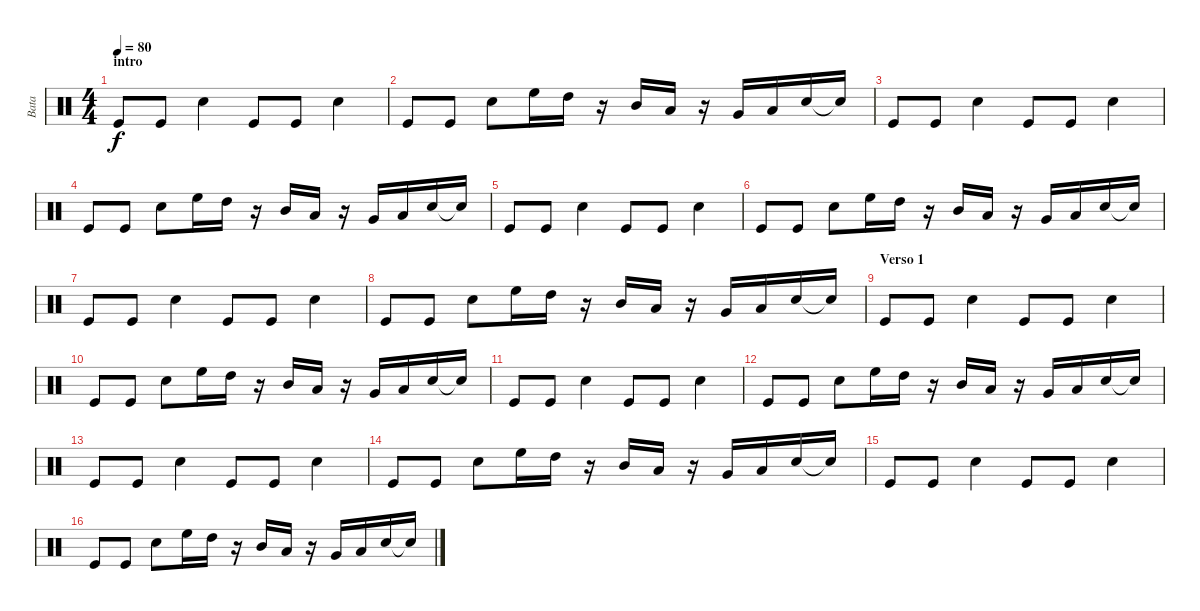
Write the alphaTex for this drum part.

\track ("Bata" "Bata") {instrument percussion}
\staff {score}
\articulation defaults
\ts (4 4)
\section ("" "intro")
\tempo 80
\clef neutral
\ks c "Kick (hit)".8{dy f} "Kick (hit)".8 "Snare (hit) 2".4 "Kick (hit)".8 "Kick (hit)".8 "Snare (hit) 2".4
|
"Kick (hit)".8 "Kick (hit)".8 "Snare (hit) 2".8 "High Floor Tom (hit)".16 "High Tom (hit)".16 r.16 "Mid Tom (hit)".16 "Low Tom (hit)".16 r.16 "Very Low Tom (hit)".16 "Low Floor Tom (hit)".16 "Snare (hit) 2".16 "Snare (hit)"{t}.16 |
"Kick (hit)".8 "Kick (hit)".8 "Snare (hit) 2".4 "Kick (hit)".8 "Kick (hit)".8 "Snare (hit) 2".4 |
"Kick (hit)".8 "Kick (hit)".8 "Snare (hit) 2".8 "High Floor Tom (hit)".16 "High Tom (hit)".16 r.16 "Mid Tom (hit)".16 "Low Tom (hit)".16 r.16 "Very Low Tom (hit)".16 "Low Floor Tom (hit)".16 "Snare (hit) 2".16 "Snare (hit)"{t}.16 |
"Kick (hit)".8 "Kick (hit)".8 "Snare (hit) 2".4 "Kick (hit)".8 "Kick (hit)".8 "Snare (hit) 2".4 |
"Kick (hit)".8 "Kick (hit)".8 "Snare (hit) 2".8 "High Floor Tom (hit)".16 "High Tom (hit)".16 r.16 "Mid Tom (hit)".16 "Low Tom (hit)".16 r.16 "Very Low Tom (hit)".16 "Low Floor Tom (hit)".16 "Snare (hit) 2".16 "Snare (hit)"{t}.16 |
"Kick (hit)".8 "Kick (hit)".8 "Snare (hit) 2".4 "Kick (hit)".8 "Kick (hit)".8 "Snare (hit) 2".4 |
"Kick (hit)".8 "Kick (hit)".8 "Snare (hit) 2".8 "High Floor Tom (hit)".16 "High Tom (hit)".16 r.16 "Mid Tom (hit)".16 "Low Tom (hit)".16 r.16 "Very Low Tom (hit)".16 "Low Floor Tom (hit)".16 "Snare (hit) 2".16 "Snare (hit)"{t}.16 |
\section ("" "Verso 1")
"Kick (hit)".8 "Kick (hit)".8 "Snare (hit) 2".4 "Kick (hit)".8 "Kick (hit)".8 "Snare (hit) 2".4 |
"Kick (hit)".8 "Kick (hit)".8 "Snare (hit) 2".8 "High Floor Tom (hit)".16 "High Tom (hit)".16 r.16 "Mid Tom (hit)".16 "Low Tom (hit)".16 r.16 "Very Low Tom (hit)".16 "Low Floor Tom (hit)".16 "Snare (hit) 2".16 "Snare (hit)"{t}.16 |
"Kick (hit)".8 "Kick (hit)".8 "Snare (hit) 2".4 "Kick (hit)".8 "Kick (hit)".8 "Snare (hit) 2".4 |
"Kick (hit)".8 "Kick (hit)".8 "Snare (hit) 2".8 "High Floor Tom (hit)".16 "High Tom (hit)".16 r.16 "Mid Tom (hit)".16 "Low Tom (hit)".16 r.16 "Very Low Tom (hit)".16 "Low Floor Tom (hit)".16 "Snare (hit) 2".16 "Snare (hit)"{t}.16 |
"Kick (hit)".8 "Kick (hit)".8 "Snare (hit) 2".4 "Kick (hit)".8 "Kick (hit)".8 "Snare (hit) 2".4 |
"Kick (hit)".8 "Kick (hit)".8 "Snare (hit) 2".8 "High Floor Tom (hit)".16 "High Tom (hit)".16 r.16 "Mid Tom (hit)".16 "Low Tom (hit)".16 r.16 "Very Low Tom (hit)".16 "Low Floor Tom (hit)".16 "Snare (hit) 2".16 "Snare (hit)"{t}.16 |
"Kick (hit)".8 "Kick (hit)".8 "Snare (hit) 2".4 "Kick (hit)".8 "Kick (hit)".8 "Snare (hit) 2".4 |
"Kick (hit)".8 "Kick (hit)".8 "Snare (hit) 2".8 "High Floor Tom (hit)".16 "High Tom (hit)".16 r.16 "Mid Tom (hit)".16 "Low Tom (hit)".16 r.16 "Very Low Tom (hit)".16 "Low Floor Tom (hit)".16 "Snare (hit) 2".16 "Snare (hit)"{t}.16
